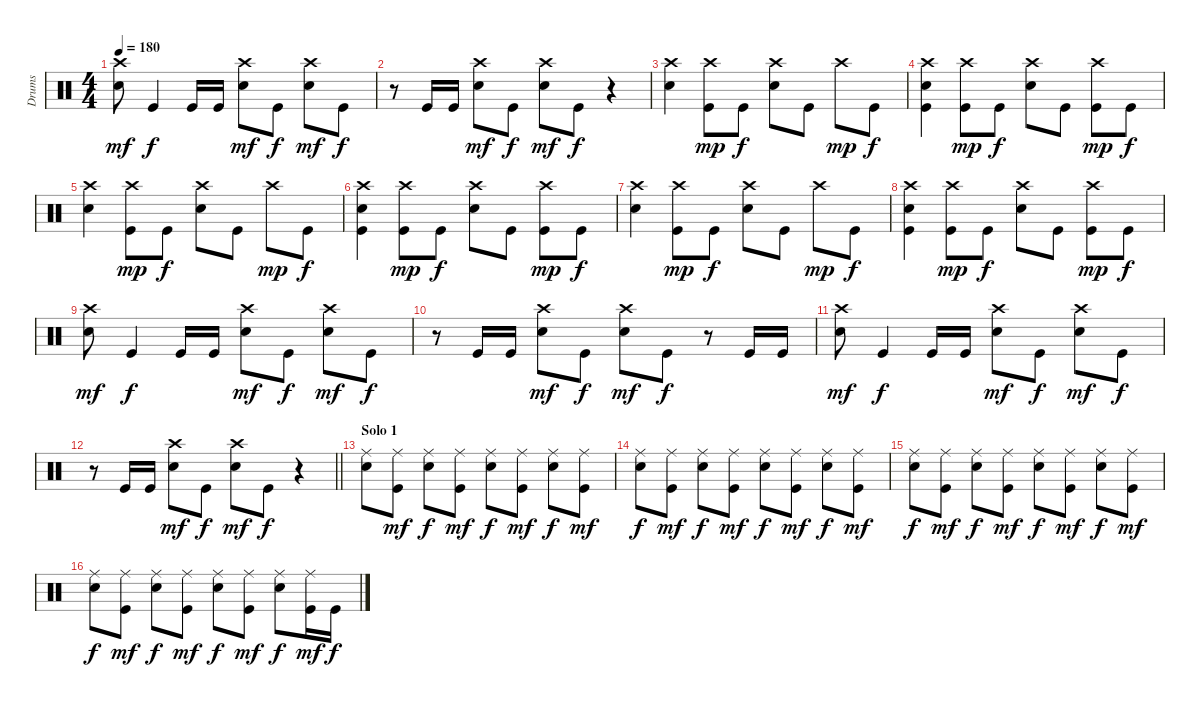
\track ("Drums" "Drums") {instrument percussion}
\staff {score}
\articulation defaults
\ts (4 4)
\tempo 180
\clef neutral
\ks c
("Crash high (hit)" "Snare (hit) 2").8{dy mf} "Kick (hit)".4{dy f} "Kick (hit)".16 "Kick (hit)".16 ("Crash high (hit)" "Snare (hit) 2").8{dy mf} "Kick (hit)".8{dy f} ("Crash high (hit)" "Snare (hit) 2").8{dy mf} "Kick (hit)".8{dy f} |
r.8 "Kick (hit)".16 "Kick (hit)".16 ("Crash high (hit)" "Snare (hit) 2").8{dy mf} "Kick (hit)".8{dy f} ("Crash high (hit)" "Snare (hit) 2").8{dy mf} "Kick (hit)".8{dy f} r.4 |
("Crash high (hit)" "Snare (hit) 2").4 ("Crash high (hit)" "Kick (hit)").8{dy mp} "Kick (hit)".8{dy f} ("Snare (hit) 2" "Crash high (hit)").8 "Kick (hit)".8 "Crash high (hit)".8{dy mp} "Kick (hit)".8{dy f} |
("Snare (hit) 2" "Crash high (hit)" "Kick (hit)").4 ("Crash high (hit)" "Kick (hit)").8{dy mp} "Kick (hit)".8{dy f} ("Crash high (hit)" "Snare (hit) 2").8 "Kick (hit)".8 ("Crash high (hit)" "Kick (hit)").8{dy mp} "Kick (hit)".8{dy f} |
("Crash high (hit)" "Snare (hit) 2").4 ("Crash high (hit)" "Kick (hit)").8{dy mp} "Kick (hit)".8{dy f} ("Snare (hit) 2" "Crash high (hit)").8 "Kick (hit)".8 "Crash high (hit)".8{dy mp} "Kick (hit)".8{dy f} |
("Snare (hit) 2" "Crash high (hit)" "Kick (hit)").4 ("Crash high (hit)" "Kick (hit)").8{dy mp} "Kick (hit)".8{dy f} ("Crash high (hit)" "Snare (hit) 2").8 "Kick (hit)".8 ("Crash high (hit)" "Kick (hit)").8{dy mp} "Kick (hit)".8{dy f} |
("Crash high (hit)" "Snare (hit) 2").4 ("Crash high (hit)" "Kick (hit)").8{dy mp} "Kick (hit)".8{dy f} ("Snare (hit) 2" "Crash high (hit)").8 "Kick (hit)".8 "Crash high (hit)".8{dy mp} "Kick (hit)".8{dy f} |
("Snare (hit) 2" "Crash high (hit)" "Kick (hit)").4 ("Crash high (hit)" "Kick (hit)").8{dy mp} "Kick (hit)".8{dy f} ("Crash high (hit)" "Snare (hit) 2").8 "Kick (hit)".8 ("Crash high (hit)" "Kick (hit)").8{dy mp} "Kick (hit)".8{dy f} |
("Crash high (hit)" "Snare (hit) 2").8{dy mf} "Kick (hit)".4{dy f} "Kick (hit)".16 "Kick (hit)".16 ("Crash high (hit)" "Snare (hit) 2").8{dy mf} "Kick (hit)".8{dy f} ("Crash high (hit)" "Snare (hit) 2").8{dy mf} "Kick (hit)".8{dy f} |
r.8 "Kick (hit)".16 "Kick (hit)".16 ("Crash high (hit)" "Snare (hit) 2").8{dy mf} "Kick (hit)".8{dy f} ("Crash high (hit)" "Snare (hit) 2").8{dy mf} "Kick (hit)".8{dy f} r.8 "Kick (hit)".16 "Kick (hit)".16 |
("Crash high (hit)" "Snare (hit) 2").8{dy mf} "Kick (hit)".4{dy f} "Kick (hit)".16 "Kick (hit)".16 ("Crash high (hit)" "Snare (hit) 2").8{dy mf} "Kick (hit)".8{dy f} ("Crash high (hit)" "Snare (hit) 2").8{dy mf} "Kick (hit)".8{dy f} |
\barLineRight lightlight
r.8 "Kick (hit)".16 "Kick (hit)".16 ("Crash high (hit)" "Snare (hit) 2").8{dy mf} "Kick (hit)".8{dy f} ("Crash high (hit)" "Snare (hit) 2").8{dy mf} "Kick (hit)".8{dy f} r.4 |
\section ("" "Solo 1")
("Ride (middle)" "Snare (hit) 2").8 ("Ride (middle)" "Kick (hit)").8{dy mf} ("Ride (middle)" "Snare (hit) 2").8{dy f} ("Ride (middle)" "Kick (hit)").8{dy mf} ("Ride (middle)" "Snare (hit) 2").8{dy f} ("Ride (middle)" "Kick (hit)").8{dy mf} ("Ride (middle)" "Snare (hit) 2").8{dy f} ("Ride (middle)" "Kick (hit)").8{dy mf} |
("Ride (middle)" "Snare (hit) 2").8{dy f} ("Ride (middle)" "Kick (hit)").8{dy mf} ("Ride (middle)" "Snare (hit) 2").8{dy f} ("Ride (middle)" "Kick (hit)").8{dy mf} ("Ride (middle)" "Snare (hit) 2").8{dy f} ("Ride (middle)" "Kick (hit)").8{dy mf} ("Ride (middle)" "Snare (hit) 2").8{dy f} ("Ride (middle)" "Kick (hit)").8{dy mf} |
("Ride (middle)" "Snare (hit) 2").8{dy f} ("Ride (middle)" "Kick (hit)").8{dy mf} ("Ride (middle)" "Snare (hit) 2").8{dy f} ("Ride (middle)" "Kick (hit)").8{dy mf} ("Ride (middle)" "Snare (hit) 2").8{dy f} ("Ride (middle)" "Kick (hit)").8{dy mf} ("Ride (middle)" "Snare (hit) 2").8{dy f} ("Ride (middle)" "Kick (hit)").8{dy mf} |
("Ride (middle)" "Snare (hit) 2").8{dy f} ("Ride (middle)" "Kick (hit)").8{dy mf} ("Ride (middle)" "Snare (hit) 2").8{dy f} ("Ride (middle)" "Kick (hit)").8{dy mf} ("Ride (middle)" "Snare (hit) 2").8{dy f} ("Ride (middle)" "Kick (hit)").8{dy mf} ("Ride (middle)" "Snare (hit) 2").8{dy f} ("Ride (middle)" "Kick (hit)").16{dy mf} "Kick (hit)".16{dy f}
